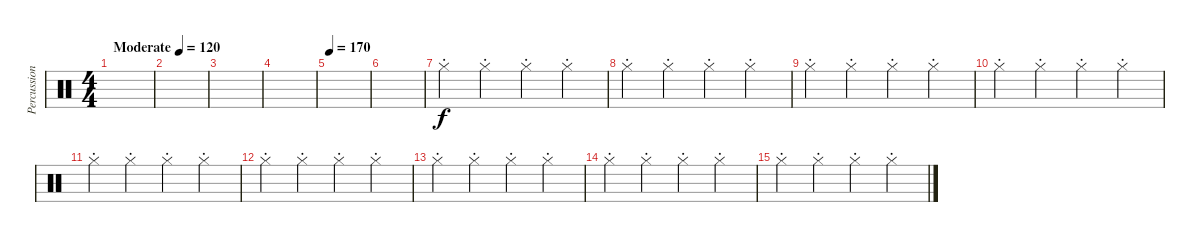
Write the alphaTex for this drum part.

\track ("Percussion" "Percussion") {instrument percussion}
\staff {score}
\articulation defaults
\ts (4 4)
\tempo (120 "Moderate")
\clef neutral
\ks c
|
|
|
|
\tempo 170
|
|
"Hi-Hat (closed)"{st}.4 "Hi-Hat (closed)"{st}.4 "Hi-Hat (closed)"{st}.4 "Hi-Hat (closed)"{st}.4 |
"Hi-Hat (closed)"{st}.4 "Hi-Hat (closed)"{st}.4 "Hi-Hat (closed)"{st}.4 "Hi-Hat (closed)"{st}.4 |
"Hi-Hat (closed)"{st}.4 "Hi-Hat (closed)"{st}.4 "Hi-Hat (closed)"{st}.4 "Hi-Hat (closed)"{st}.4 |
"Hi-Hat (closed)"{st}.4 "Hi-Hat (closed)"{st}.4 "Hi-Hat (closed)"{st}.4 "Hi-Hat (closed)"{st}.4 |
"Hi-Hat (closed)"{st}.4 "Hi-Hat (closed)"{st}.4 "Hi-Hat (closed)"{st}.4 "Hi-Hat (closed)"{st}.4 |
"Hi-Hat (closed)"{st}.4 "Hi-Hat (closed)"{st}.4 "Hi-Hat (closed)"{st}.4 "Hi-Hat (closed)"{st}.4 |
"Hi-Hat (closed)"{st}.4 "Hi-Hat (closed)"{st}.4 "Hi-Hat (closed)"{st}.4 "Hi-Hat (closed)"{st}.4 |
"Hi-Hat (closed)"{st}.4 "Hi-Hat (closed)"{st}.4 "Hi-Hat (closed)"{st}.4 "Hi-Hat (closed)"{st}.4 |
"Hi-Hat (closed)"{st}.4 "Hi-Hat (closed)"{st}.4 "Hi-Hat (closed)"{st}.4 "Hi-Hat (closed)"{st}.4
